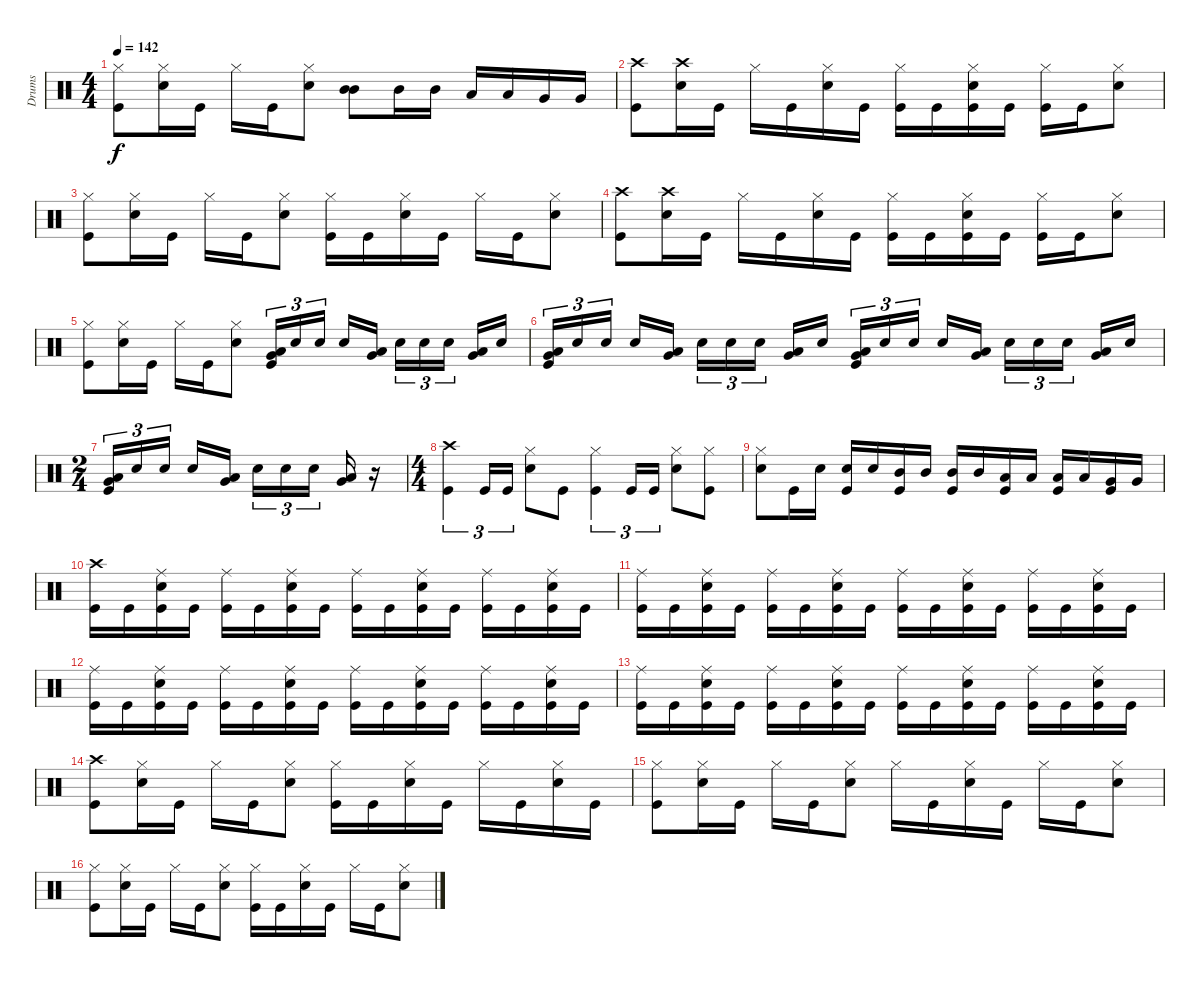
\track ("Drums" "Drums") {instrument percussion}
\staff {score}
\articulation defaults
\ts (4 4)
\tempo 142
\clef neutral
\ks c
("Hi-Hat (closed)" "Kick (hit)").8{dy f} ("Snare (hit) 2" "Hi-Hat (closed)").16 "Kick (hit)".16 "Hi-Hat (closed)".16 "Kick (hit)".16 ("Snare (hit) 2" "Hi-Hat (closed)").8 ("Mid Tom (hit)" "Mid Tom (hit)").8 "Mid Tom (hit)".16 "Mid Tom (hit)".16 "Low Tom (hit)".16 "Low Tom (hit)".16 "Very Low Tom (hit)".16 "Very Low Tom (hit)".16 |
("Crash high (hit)" "Kick (hit)").8 ("Crash high (hit)" "Snare (hit) 2").16 "Kick (hit)".16 "Hi-Hat (closed)".16 "Kick (hit)".16 ("Snare (hit) 2" "Hi-Hat (closed)").16 "Kick (hit)".16 ("Kick (hit)" "Hi-Hat (closed)").16 "Kick (hit)".16 ("Kick (hit)" "Snare (hit) 2" "Hi-Hat (closed)").16 "Kick (hit)".16 ("Kick (hit)" "Hi-Hat (closed)").16 "Kick (hit)".16 ("Snare (hit) 2" "Hi-Hat (closed)").8 |
("Hi-Hat (closed)" "Kick (hit)").8 ("Snare (hit) 2" "Hi-Hat (closed)").16 "Kick (hit)".16 "Hi-Hat (closed)".16 "Kick (hit)".16 ("Snare (hit) 2" "Hi-Hat (closed)").8 ("Hi-Hat (closed)" "Kick (hit)").16 "Kick (hit)".16 ("Snare (hit) 2" "Hi-Hat (closed)").16 "Kick (hit)".16 "Hi-Hat (closed)".16 "Kick (hit)".16 ("Hi-Hat (closed)" "Snare (hit) 2").8 |
("Crash high (hit)" "Kick (hit)").8 ("Crash high (hit)" "Snare (hit) 2").16 "Kick (hit)".16 "Hi-Hat (closed)".16 "Kick (hit)".16 ("Snare (hit) 2" "Hi-Hat (closed)").16 "Kick (hit)".16 ("Hi-Hat (closed)" "Kick (hit)").16 "Kick (hit)".16 ("Snare (hit) 2" "Hi-Hat (closed)" "Kick (hit)").16 "Kick (hit)".16 ("Hi-Hat (closed)" "Kick (hit)").16 "Kick (hit)".16 ("Snare (hit) 2" "Hi-Hat (closed)").8 |
("Hi-Hat (closed)" "Kick (hit)").8 ("Snare (hit) 2" "Hi-Hat (closed)").16 "Kick (hit)".16 "Hi-Hat (closed)".16 "Kick (hit)".16 ("Snare (hit) 2" "Hi-Hat (closed)").8 ("Low Tom (hit)" "Very Low Tom (hit)" "Kick (hit)").16{tu (3 2)} "Snare (hit) 2".16{tu (3 2)} "Snare (hit) 2".16{tu (3 2)} "Snare (hit) 2".16 ("Low Tom (hit)" "Very Low Tom (hit)").16 "Snare (hit) 2".16{tu (3 2)} "Snare (hit) 2".16{tu (3 2)} "Snare (hit) 2".16{tu (3 2)} ("Low Tom (hit)" "Very Low Tom (hit)").16 "Snare (hit) 2".16 |
("Low Tom (hit)" "Very Low Tom (hit)" "Kick (hit)").16{tu (3 2)} "Snare (hit) 2".16{tu (3 2)} "Snare (hit) 2".16{tu (3 2)} "Snare (hit) 2".16 ("Low Tom (hit)" "Very Low Tom (hit)").16 "Snare (hit) 2".16{tu (3 2)} "Snare (hit) 2".16{tu (3 2)} "Snare (hit) 2".16{tu (3 2)} ("Low Tom (hit)" "Very Low Tom (hit)").16 "Snare (hit) 2".16 ("Low Tom (hit)" "Very Low Tom (hit)" "Kick (hit)").16{tu (3 2)} "Snare (hit) 2".16{tu (3 2)} "Snare (hit) 2".16{tu (3 2)} "Snare (hit) 2".16 ("Low Tom (hit)" "Very Low Tom (hit)").16 "Snare (hit) 2".16{tu (3 2)} "Snare (hit) 2".16{tu (3 2)} "Snare (hit) 2".16{tu (3 2)} ("Low Tom (hit)" "Very Low Tom (hit)").16 "Snare (hit) 2".16 |
\ts (2 4)
("Low Tom (hit)" "Very Low Tom (hit)" "Kick (hit)").16{tu (3 2)} "Snare (hit) 2".16{tu (3 2)} "Snare (hit) 2".16{tu (3 2)} "Snare (hit) 2".16 ("Low Tom (hit)" "Very Low Tom (hit)").16 "Snare (hit) 2".16{tu (3 2)} "Snare (hit) 2".16{tu (3 2)} "Snare (hit) 2".16{tu (3 2)} ("Low Tom (hit)" "Very Low Tom (hit)").16 r.16 |
\ts (4 4)
("Crash high (hit)" "Kick (hit)").4{tu (3 2)} "Kick (hit)".16{tu (3 2)} "Kick (hit)".16{tu (3 2)} ("Snare (hit) 2" "Hi-Hat (closed)").8 "Kick (hit)".8 ("Hi-Hat (closed)" "Kick (hit)").4{tu (3 2)} "Kick (hit)".16{tu (3 2)} "Kick (hit)".16{tu (3 2)} ("Snare (hit) 2" "Hi-Hat (closed)").8 ("Kick (hit)" "Hi-Hat (closed)").8 |
("Hi-Hat (closed)" "Snare (hit) 2").8 "Kick (hit)".16 "Snare (hit) 2".16 ("Kick (hit)" "Snare (hit) 2").16 "Snare (hit) 2".16 ("Mid Tom (hit)" "Kick (hit)").16 "Mid Tom (hit)".16 ("Mid Tom (hit)" "Kick (hit)").16 "Mid Tom (hit)".16 ("Low Tom (hit)" "Kick (hit)").16 "Low Tom (hit)".16 ("Low Tom (hit)" "Kick (hit)").16 "Low Tom (hit)".16 ("Very Low Tom (hit)" "Kick (hit)").16 "Very Low Tom (hit)".16 |
("Crash high (hit)" "Kick (hit)").16 "Kick (hit)".16 ("Snare (hit) 2" "Ride (middle)" "Kick (hit)").16 "Kick (hit)".16 ("Ride (middle)" "Kick (hit)").16 "Kick (hit)".16 ("Snare (hit) 2" "Ride (middle)" "Kick (hit)").16 "Kick (hit)".16 ("Ride (middle)" "Kick (hit)").16 "Kick (hit)".16 ("Snare (hit) 2" "Ride (middle)" "Kick (hit)").16 "Kick (hit)".16 ("Ride (middle)" "Kick (hit)").16 "Kick (hit)".16 ("Snare (hit) 2" "Ride (middle)" "Kick (hit)").16 "Kick (hit)".16 |
("Ride (middle)" "Kick (hit)").16 "Kick (hit)".16 ("Snare (hit) 2" "Ride (middle)" "Kick (hit)").16 "Kick (hit)".16 ("Ride (middle)" "Kick (hit)").16 "Kick (hit)".16 ("Snare (hit) 2" "Ride (middle)" "Kick (hit)").16 "Kick (hit)".16 ("Ride (middle)" "Kick (hit)").16 "Kick (hit)".16 ("Snare (hit) 2" "Ride (middle)" "Kick (hit)").16 "Kick (hit)".16 ("Ride (middle)" "Kick (hit)").16 "Kick (hit)".16 ("Snare (hit) 2" "Ride (middle)" "Kick (hit)").16 "Kick (hit)".16 |
("Ride (middle)" "Kick (hit)").16 "Kick (hit)".16 ("Snare (hit) 2" "Ride (middle)" "Kick (hit)").16 "Kick (hit)".16 ("Ride (middle)" "Kick (hit)").16 "Kick (hit)".16 ("Snare (hit) 2" "Ride (middle)" "Kick (hit)").16 "Kick (hit)".16 ("Ride (middle)" "Kick (hit)").16 "Kick (hit)".16 ("Snare (hit) 2" "Ride (middle)" "Kick (hit)").16 "Kick (hit)".16 ("Ride (middle)" "Kick (hit)").16 "Kick (hit)".16 ("Snare (hit) 2" "Ride (middle)" "Kick (hit)").16 "Kick (hit)".16 |
("Ride (middle)" "Kick (hit)").16 "Kick (hit)".16 ("Snare (hit) 2" "Ride (middle)" "Kick (hit)").16 "Kick (hit)".16 ("Ride (middle)" "Kick (hit)").16 "Kick (hit)".16 ("Snare (hit) 2" "Ride (middle)" "Kick (hit)").16 "Kick (hit)".16 ("Ride (middle)" "Kick (hit)").16 "Kick (hit)".16 ("Snare (hit) 2" "Ride (middle)" "Kick (hit)").16 "Kick (hit)".16 ("Ride (middle)" "Kick (hit)").16 "Kick (hit)".16 ("Snare (hit) 2" "Ride (middle)" "Kick (hit)").16 "Kick (hit)".16 |
("Crash high (hit)" "Kick (hit)").8 ("Snare (hit) 2" "Hi-Hat (closed)").16 "Kick (hit)".16 "Hi-Hat (closed)".16 "Kick (hit)".16 ("Snare (hit) 2" "Hi-Hat (closed)").8 ("Kick (hit)" "Hi-Hat (closed)").16 "Kick (hit)".16 ("Snare (hit) 2" "Hi-Hat (closed)").16 "Kick (hit)".16 "Hi-Hat (closed)".16 "Kick (hit)".16 ("Snare (hit) 2" "Hi-Hat (closed)").16 "Kick (hit)".16 |
("Kick (hit)" "Hi-Hat (closed)").8 ("Snare (hit) 2" "Hi-Hat (closed)").16 "Kick (hit)".16 "Hi-Hat (closed)".16 "Kick (hit)".16 ("Snare (hit) 2" "Hi-Hat (closed)").8 "Hi-Hat (closed)".16 "Kick (hit)".16 ("Snare (hit) 2" "Hi-Hat (closed)").16 "Kick (hit)".16 "Hi-Hat (closed)".16 "Kick (hit)".16 ("Snare (hit) 2" "Hi-Hat (closed)").8 |
("Kick (hit)" "Hi-Hat (closed)").8 ("Snare (hit) 2" "Hi-Hat (closed)").16 "Kick (hit)".16 "Hi-Hat (closed)".16 "Kick (hit)".16 ("Snare (hit) 2" "Hi-Hat (closed)").8 ("Kick (hit)" "Hi-Hat (closed)").16 "Kick (hit)".16 ("Snare (hit) 2" "Hi-Hat (closed)").16 "Kick (hit)".16 "Hi-Hat (closed)".16 "Kick (hit)".16 ("Snare (hit) 2" "Hi-Hat (closed)").8
